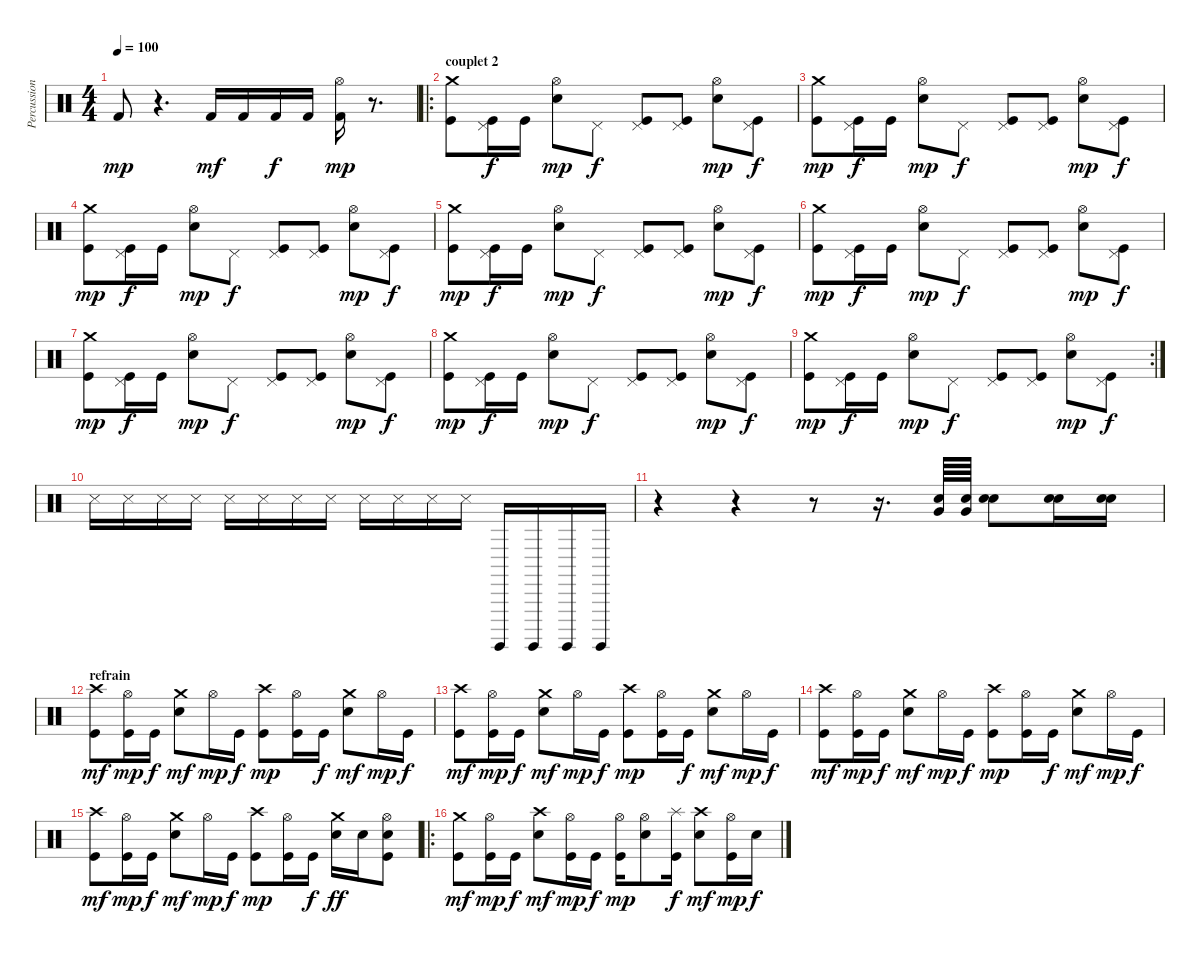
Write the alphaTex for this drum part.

\track ("Percussions" "Percussion") {instrument percussion}
\staff {score}
\articulation defaults
\ts (4 4)
\tempo 100
\clef neutral
\ks c "Kick (hit) 2".8{dy mp}
r.4{d} "Kick (hit) 2".16{dy mf} "Kick (hit) 2".16 "Kick (hit) 2".16{dy f} "Kick (hit) 2".16 ("Hi-Hat (open)" "Kick (hit) 2").16{dy mp} r.8{d} |
\ro
\section ("" "couplet 2")
("Crash medium (hit)" "Kick (hit)").8 ("Pedal Hi-Hat (hit)" "Kick (hit)").16{dy f} "Kick (hit)".16 ("Hi-Hat (open)" "Electric Snare (hit)").8{dy mp} "Pedal Hi-Hat (hit)".8{dy f} ("Pedal Hi-Hat (hit)" "Kick (hit)").8 ("Pedal Hi-Hat (hit)" "Kick (hit)").8 ("Hi-Hat (open)" "Electric Snare (hit)").8{dy mp} ("Pedal Hi-Hat (hit)" "Kick (hit)").8{dy f} |
("Crash medium (hit)" "Kick (hit)").8{dy mp} ("Pedal Hi-Hat (hit)" "Kick (hit)").16{dy f} "Kick (hit)".16 ("Hi-Hat (open)" "Electric Snare (hit)").8{dy mp} "Pedal Hi-Hat (hit)".8{dy f} ("Pedal Hi-Hat (hit)" "Kick (hit)").8 ("Pedal Hi-Hat (hit)" "Kick (hit)").8 ("Hi-Hat (open)" "Electric Snare (hit)").8{dy mp} ("Pedal Hi-Hat (hit)" "Kick (hit)").8{dy f} |
("Crash medium (hit)" "Kick (hit)").8{dy mp} ("Pedal Hi-Hat (hit)" "Kick (hit)").16{dy f} "Kick (hit)".16 ("Hi-Hat (open)" "Electric Snare (hit)").8{dy mp} "Pedal Hi-Hat (hit)".8{dy f} ("Pedal Hi-Hat (hit)" "Kick (hit)").8 ("Pedal Hi-Hat (hit)" "Kick (hit)").8 ("Hi-Hat (open)" "Electric Snare (hit)").8{dy mp} ("Pedal Hi-Hat (hit)" "Kick (hit)").8{dy f} |
("Crash medium (hit)" "Kick (hit)").8{dy mp} ("Pedal Hi-Hat (hit)" "Kick (hit)").16{dy f} "Kick (hit)".16 ("Hi-Hat (open)" "Electric Snare (hit)").8{dy mp} "Pedal Hi-Hat (hit)".8{dy f} ("Pedal Hi-Hat (hit)" "Kick (hit)").8 ("Pedal Hi-Hat (hit)" "Kick (hit)").8 ("Hi-Hat (open)" "Electric Snare (hit)").8{dy mp} ("Pedal Hi-Hat (hit)" "Kick (hit)").8{dy f} |
("Crash medium (hit)" "Kick (hit)").8{dy mp} ("Pedal Hi-Hat (hit)" "Kick (hit)").16{dy f} "Kick (hit)".16 ("Hi-Hat (open)" "Electric Snare (hit)").8{dy mp} "Pedal Hi-Hat (hit)".8{dy f} ("Pedal Hi-Hat (hit)" "Kick (hit)").8 ("Pedal Hi-Hat (hit)" "Kick (hit)").8 ("Hi-Hat (open)" "Electric Snare (hit)").8{dy mp} ("Pedal Hi-Hat (hit)" "Kick (hit)").8{dy f} |
("Crash medium (hit)" "Kick (hit)").8{dy mp} ("Pedal Hi-Hat (hit)" "Kick (hit)").16{dy f} "Kick (hit)".16 ("Hi-Hat (open)" "Electric Snare (hit)").8{dy mp} "Pedal Hi-Hat (hit)".8{dy f} ("Pedal Hi-Hat (hit)" "Kick (hit)").8 ("Pedal Hi-Hat (hit)" "Kick (hit)").8 ("Hi-Hat (open)" "Electric Snare (hit)").8{dy mp} ("Pedal Hi-Hat (hit)" "Kick (hit)").8{dy f} |
("Crash medium (hit)" "Kick (hit)").8{dy mp} ("Pedal Hi-Hat (hit)" "Kick (hit)").16{dy f} "Kick (hit)".16 ("Hi-Hat (open)" "Electric Snare (hit)").8{dy mp} "Pedal Hi-Hat (hit)".8{dy f} ("Pedal Hi-Hat (hit)" "Kick (hit)").8 ("Pedal Hi-Hat (hit)" "Kick (hit)").8 ("Hi-Hat (open)" "Electric Snare (hit)").8{dy mp} ("Pedal Hi-Hat (hit)" "Kick (hit)").8{dy f} |
\rc 2
("Crash medium (hit)" "Kick (hit)").8{dy mp} ("Pedal Hi-Hat (hit)" "Kick (hit)").16{dy f} "Kick (hit)".16 ("Hi-Hat (open)" "Electric Snare (hit)").8{dy mp} "Pedal Hi-Hat (hit)".8{dy f} ("Pedal Hi-Hat (hit)" "Kick (hit)").8 ("Pedal Hi-Hat (hit)" "Kick (hit)").8 ("Hi-Hat (open)" "Electric Snare (hit)").8{dy mp} ("Pedal Hi-Hat (hit)" "Kick (hit)").8{dy f} |
"Metronome (hit)".16 "Metronome (hit)".16 "Metronome (hit)".16 "Metronome (hit)".16 "Metronome (hit)".16 "Metronome (hit)".16 "Metronome (hit)".16 "Metronome (hit)".16 "Metronome (hit)".16 "Metronome (hit)".16 "Metronome (hit)".16 "Metronome (hit)".16 "Surdo (hit)".16 "Surdo (hit)".16 "Surdo (hit)".16 "Surdo (hit)".16 |
r.4 r.4 r.8 r.16{d volume 15} ("Very Low Tom (hit)" "Snare (hit) 2").64 ("Very Low Tom (hit)" "Snare (hit) 2").64 ("Electric Snare (hit)" "Snare (hit) 2").8 ("Electric Snare (hit)" "Snare (hit) 2").16 ("Electric Snare (hit)" "Snare (hit) 2").16 |
\section ("" "refrain")
("Crash high (hit)" "Kick (hit)").8{dy mf} ("Hi-Hat (open)" "Kick (hit)").16{dy mp} "Kick (hit)".16{dy f} ("Crash medium (hit)" "Electric Snare (hit)").8{dy mf} "Hi-Hat (open)".16{dy mp} "Kick (hit)".16{dy f} ("Crash high (hit)" "Kick (hit)").8{dy mp} ("Hi-Hat (open)" "Kick (hit)").16 "Kick (hit)".16{dy f} ("Crash medium (hit)" "Electric Snare (hit)").8{dy mf} "Hi-Hat (open)".16{dy mp} "Kick (hit)".16{dy f} |
("Crash high (hit)" "Kick (hit)").8{dy mf} ("Hi-Hat (open)" "Kick (hit)").16{dy mp} "Kick (hit)".16{dy f} ("Crash medium (hit)" "Electric Snare (hit)").8{dy mf} "Hi-Hat (open)".16{dy mp} "Kick (hit)".16{dy f} ("Crash high (hit)" "Kick (hit)").8{dy mp} ("Hi-Hat (open)" "Kick (hit)").16 "Kick (hit)".16{dy f} ("Crash medium (hit)" "Electric Snare (hit)").8{dy mf} "Hi-Hat (open)".16{dy mp} "Kick (hit)".16{dy f} |
("Crash high (hit)" "Kick (hit)").8{dy mf} ("Hi-Hat (open)" "Kick (hit)").16{dy mp} "Kick (hit)".16{dy f} ("Crash medium (hit)" "Electric Snare (hit)").8{dy mf} "Hi-Hat (open)".16{dy mp} "Kick (hit)".16{dy f} ("Crash high (hit)" "Kick (hit)").8{dy mp} ("Hi-Hat (open)" "Kick (hit)").16 "Kick (hit)".16{dy f} ("Crash medium (hit)" "Electric Snare (hit)").8{dy mf} "Hi-Hat (open)".16{dy mp} "Kick (hit)".16{dy f} |
("Crash high (hit)" "Kick (hit)").8{dy mf} ("Hi-Hat (open)" "Kick (hit)").16{dy mp} "Kick (hit)".16{dy f} ("Crash medium (hit)" "Electric Snare (hit)").8{dy mf} "Hi-Hat (open)".16{dy mp} "Kick (hit)".16{dy f} ("Crash high (hit)" "Kick (hit)").8{dy mp} ("Hi-Hat (open)" "Kick (hit)").16 "Kick (hit)".16{dy f} ("Crash medium (hit)" "Electric Snare (hit)").16{dy ff} "Electric Snare (hit)".16 ("Hi-Hat (open)" "Electric Snare (hit)" "Kick (hit)").8 |
\ro
("Crash medium (hit)" "Kick (hit)").8{dy mf} ("Hi-Hat (open)" "Kick (hit)").16{dy mp} "Kick (hit)".16{dy f} ("Crash high (hit)" "Electric Snare (hit)").8{dy mf} ("Hi-Hat (open)" "Kick (hit)").16{dy mp} "Kick (hit)".16{dy f} ("Hi-Hat (open)" "Kick (hit)").16{dy mp} ("Hi-Hat (open)" "Electric Snare (hit)").8 ("Splash (hit)" "Kick (hit)").16{dy f} ("Crash high (hit)" "Electric Snare (hit)").8{dy mf} ("Hi-Hat (open)" "Kick (hit)").16{dy mp} "Electric Snare (hit)".16{dy f}
